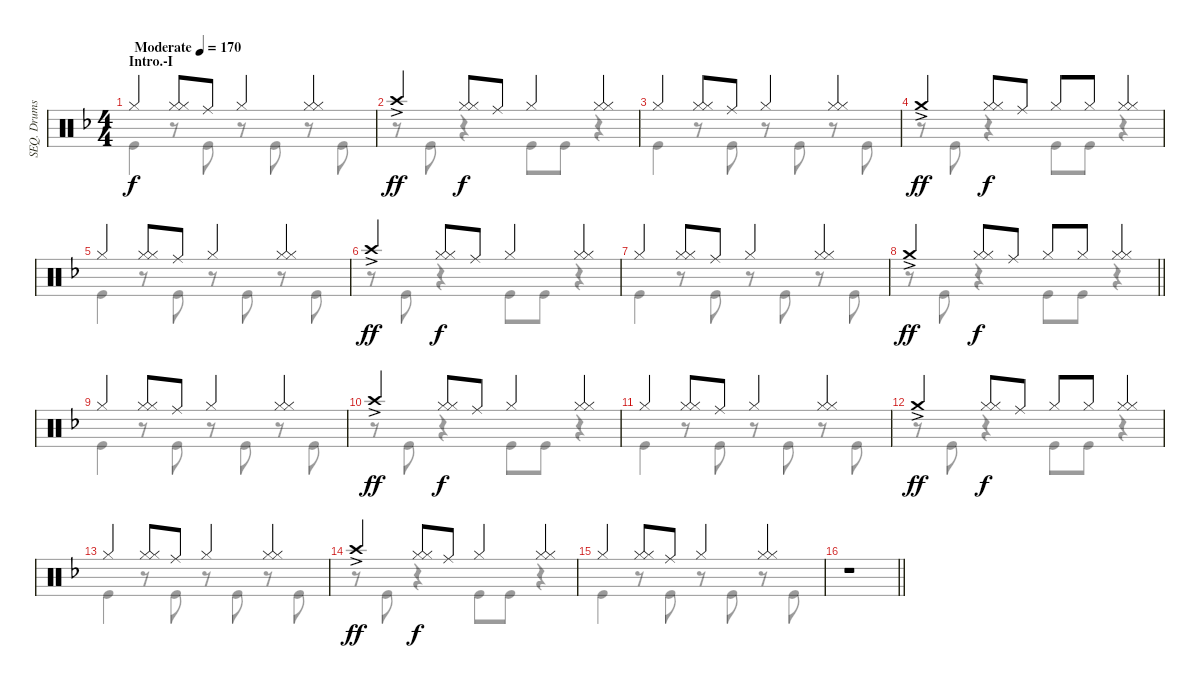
\track ("SEQ. Drums" "SEQ. Drums") {instrument percussion}
\staff {score}
\articulation defaults
\voice
\ts (4 4)
\section ("" "Intro.-I")
\tempo (170 "Moderate")
\clef neutral
\ks f "Hi-Hat (closed)".4{dy f}
("Hi-Hat (closed)" "Hi-Hat (closed)").8 "Ride (middle)".8 "Hi-Hat (closed)".4 ("Hi-Hat (closed)" "Hi-Hat (closed)").4 |
"Crash high (hit)"{ac}.4{dy ff} ("Hi-Hat (closed)" "Hi-Hat (closed)").8{dy f} "Ride (middle)".8 "Hi-Hat (closed)".4 ("Hi-Hat (closed)" "Hi-Hat (closed)").4 |
"Hi-Hat (closed)".4 ("Hi-Hat (closed)" "Hi-Hat (closed)").8 "Ride (middle)".8 "Hi-Hat (closed)".4 ("Hi-Hat (closed)" "Hi-Hat (closed)").4 |
"Crash medium (hit)"{ac}.4{dy ff} ("Hi-Hat (closed)" "Hi-Hat (closed)").8{dy f} "Ride (middle)".8 "Hi-Hat (closed)".8 "Hi-Hat (closed)".8 ("Hi-Hat (closed)" "Hi-Hat (closed)").4 |
"Hi-Hat (closed)".4 ("Hi-Hat (closed)" "Hi-Hat (closed)").8 "Ride (middle)".8 "Hi-Hat (closed)".4 ("Hi-Hat (closed)" "Hi-Hat (closed)").4 |
"Crash high (hit)"{ac}.4{dy ff} ("Hi-Hat (closed)" "Hi-Hat (closed)").8{dy f} "Ride (middle)".8 "Hi-Hat (closed)".4 ("Hi-Hat (closed)" "Hi-Hat (closed)").4 |
"Hi-Hat (closed)".4 ("Hi-Hat (closed)" "Hi-Hat (closed)").8 "Ride (middle)".8 "Hi-Hat (closed)".4 ("Hi-Hat (closed)" "Hi-Hat (closed)").4 |
\barLineRight lightlight "Crash medium (hit)"{ac}.4{dy ff}
("Hi-Hat (closed)" "Hi-Hat (closed)").8{dy f} "Ride (middle)".8 "Hi-Hat (closed)".8 "Hi-Hat (closed)".8 ("Hi-Hat (closed)" "Hi-Hat (closed)").4 |
\section ("" "")
"Hi-Hat (closed)".4 ("Hi-Hat (closed)" "Hi-Hat (closed)").8 "Ride (middle)".8 "Hi-Hat (closed)".4 ("Hi-Hat (closed)" "Hi-Hat (closed)").4 |
"Crash high (hit)"{ac}.4{dy ff} ("Hi-Hat (closed)" "Hi-Hat (closed)").8{dy f} "Ride (middle)".8 "Hi-Hat (closed)".4 ("Hi-Hat (closed)" "Hi-Hat (closed)").4 |
"Hi-Hat (closed)".4 ("Hi-Hat (closed)" "Hi-Hat (closed)").8 "Ride (middle)".8 "Hi-Hat (closed)".4 ("Hi-Hat (closed)" "Hi-Hat (closed)").4 |
"Crash medium (hit)"{ac}.4{dy ff} ("Hi-Hat (closed)" "Hi-Hat (closed)").8{dy f} "Ride (middle)".8 "Hi-Hat (closed)".8 "Hi-Hat (closed)".8 ("Hi-Hat (closed)" "Hi-Hat (closed)").4 |
"Hi-Hat (closed)".4 ("Hi-Hat (closed)" "Hi-Hat (closed)").8 "Ride (middle)".8 "Hi-Hat (closed)".4 ("Hi-Hat (closed)" "Hi-Hat (closed)").4 |
"Crash high (hit)"{ac}.4{dy ff} ("Hi-Hat (closed)" "Hi-Hat (closed)").8{dy f} "Ride (middle)".8 "Hi-Hat (closed)".4 ("Hi-Hat (closed)" "Hi-Hat (closed)").4 |
"Hi-Hat (closed)".4 ("Hi-Hat (closed)" "Hi-Hat (closed)").8 "Ride (middle)".8 "Hi-Hat (closed)".4 ("Hi-Hat (closed)" "Hi-Hat (closed)").4 |
\barLineRight lightlight
r.1
\voice
\clef neutral
\ottava regular
\simile none
\ks f "Kick (hit)".4{dy f}
r.8 "Kick (hit)".8 r.8 "Kick (hit)".8 r.8 "Kick (hit)".8 |
r.8 "Kick (hit)".8 r.4 "Kick (hit)".8 "Kick (hit)".8 r.4 |
"Kick (hit)".4 r.8 "Kick (hit)".8 r.8 "Kick (hit)".8 r.8 "Kick (hit)".8 |
r.8 "Kick (hit)".8 r.4 "Kick (hit)".8 "Kick (hit)".8 r.4 |
"Kick (hit)".4 r.8 "Kick (hit)".8 r.8 "Kick (hit)".8 r.8 "Kick (hit)".8 |
r.8 "Kick (hit)".8 r.4 "Kick (hit)".8 "Kick (hit)".8 r.4 |
"Kick (hit)".4 r.8 "Kick (hit)".8 r.8 "Kick (hit)".8 r.8 "Kick (hit)".8 |
\barLineRight lightlight
r.8 "Kick (hit)".8 r.4 "Kick (hit)".8 "Kick (hit)".8 r.4 |
"Kick (hit)".4 r.8 "Kick (hit)".8 r.8 "Kick (hit)".8 r.8 "Kick (hit)".8 |
r.8 "Kick (hit)".8 r.4 "Kick (hit)".8 "Kick (hit)".8 r.4 |
"Kick (hit)".4 r.8 "Kick (hit)".8 r.8 "Kick (hit)".8 r.8 "Kick (hit)".8 |
r.8 "Kick (hit)".8 r.4 "Kick (hit)".8 "Kick (hit)".8 r.4 |
"Kick (hit)".4 r.8 "Kick (hit)".8 r.8 "Kick (hit)".8 r.8 "Kick (hit)".8 |
r.8 "Kick (hit)".8 r.4 "Kick (hit)".8 "Kick (hit)".8 r.4 |
"Kick (hit)".4 r.8 "Kick (hit)".8 r.8 "Kick (hit)".8 r.8 "Kick (hit)".8 |
\barLineRight lightlight
